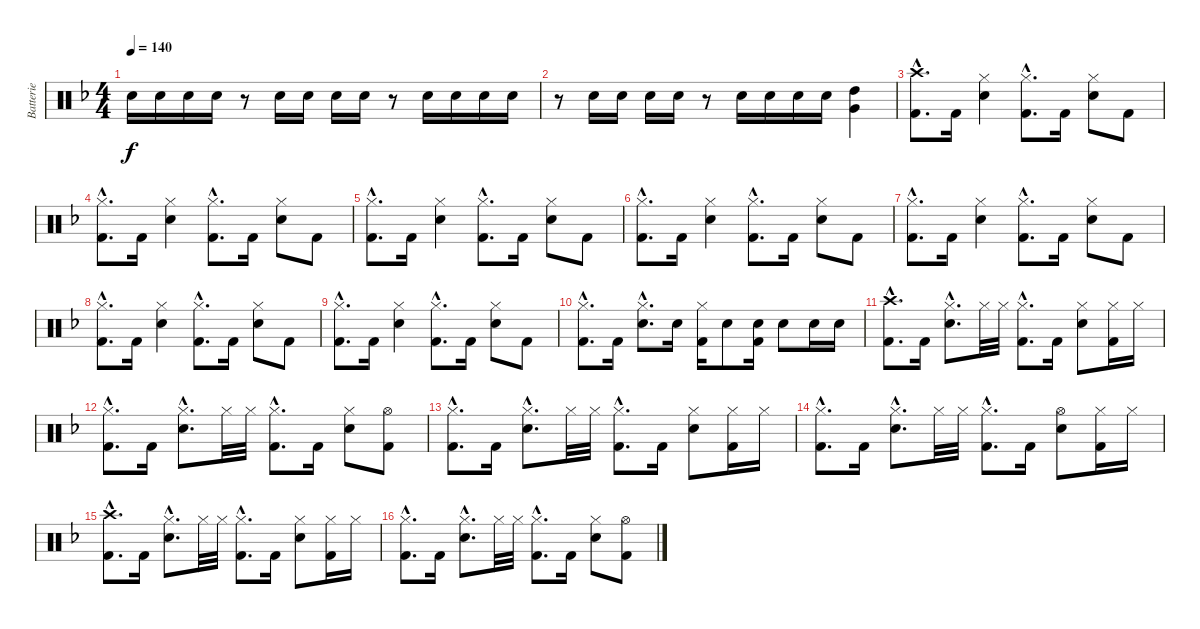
\track ("Batterie" "Batterie") {instrument percussion}
\staff {score}
\articulation defaults
\ts (4 4)
\tempo 140
\clef neutral
\ks f "Snare (hit) 2".16{dy f} "Snare (hit) 2".16 "Snare (hit) 2".16 "Snare (hit) 2".16
r.8 "Snare (hit) 2".16 "Snare (hit) 2".16 "Snare (hit) 2".16 "Snare (hit) 2".16 r.8 "Snare (hit) 2".16 "Snare (hit) 2".16 "Snare (hit) 2".16 "Snare (hit) 2".16 |
r.8 "Snare (hit) 2".16 "Snare (hit) 2".16 "Snare (hit) 2".16 "Snare (hit) 2".16 r.8 "Snare (hit) 2".16 "Snare (hit) 2".16 "Snare (hit) 2".16 "Snare (hit) 2".16 ("High Tom (hit)" "Very Low Tom (hit)").4 |
("Crash high (hit)"{hac} "Kick (hit) 2"{hac}).8{d} "Kick (hit) 2".16 ("Hi-Hat (closed)" "Snare (hit) 2").4 ("Hi-Hat (closed)"{hac} "Kick (hit) 2"{hac}).8{d} "Kick (hit) 2".16 ("Hi-Hat (closed)" "Snare (hit) 2").8 "Kick (hit) 2".8 |
("Hi-Hat (closed)"{hac} "Kick (hit) 2"{hac}).8{d} "Kick (hit) 2".16 ("Hi-Hat (closed)" "Snare (hit) 2").4 ("Hi-Hat (closed)"{hac} "Kick (hit) 2"{hac}).8{d} "Kick (hit) 2".16 ("Hi-Hat (closed)" "Snare (hit) 2").8 "Kick (hit) 2".8 |
("Hi-Hat (closed)"{hac} "Kick (hit) 2"{hac}).8{d} "Kick (hit) 2".16 ("Hi-Hat (closed)" "Snare (hit) 2").4 ("Hi-Hat (closed)"{hac} "Kick (hit) 2"{hac}).8{d} "Kick (hit) 2".16 ("Hi-Hat (closed)" "Snare (hit) 2").8 "Kick (hit) 2".8 |
("Hi-Hat (closed)"{hac} "Kick (hit) 2"{hac}).8{d} "Kick (hit) 2".16 ("Hi-Hat (closed)" "Snare (hit) 2").4 ("Hi-Hat (closed)"{hac} "Kick (hit) 2"{hac}).8{d} "Kick (hit) 2".16 ("Hi-Hat (closed)" "Snare (hit) 2").8 "Kick (hit) 2".8 |
("Hi-Hat (closed)"{hac} "Kick (hit) 2"{hac}).8{d} "Kick (hit) 2".16 ("Hi-Hat (closed)" "Snare (hit) 2").4 ("Hi-Hat (closed)"{hac} "Kick (hit) 2"{hac}).8{d} "Kick (hit) 2".16 ("Hi-Hat (closed)" "Snare (hit) 2").8 "Kick (hit) 2".8 |
("Hi-Hat (closed)"{hac} "Kick (hit) 2"{hac}).8{d} "Kick (hit) 2".16 ("Hi-Hat (closed)" "Snare (hit) 2").4 ("Hi-Hat (closed)"{hac} "Kick (hit) 2"{hac}).8{d} "Kick (hit) 2".16 ("Hi-Hat (closed)" "Snare (hit) 2").8 "Kick (hit) 2".8 |
("Hi-Hat (closed)"{hac} "Kick (hit) 2"{hac}).8{d} "Kick (hit) 2".16 ("Hi-Hat (closed)" "Snare (hit) 2").4 ("Hi-Hat (closed)"{hac} "Kick (hit) 2"{hac}).8{d} "Kick (hit) 2".16 ("Hi-Hat (closed)" "Snare (hit) 2").8 "Kick (hit) 2".8 |
("Hi-Hat (closed)"{hac} "Kick (hit) 2"{hac}).8{d} "Kick (hit) 2".16 ("Hi-Hat (closed)"{hac} "Snare (hit) 2"{hac}).8{d} "Snare (hit) 2".16 ("Hi-Hat (closed)" "Kick (hit) 2").16 "Snare (hit) 2".8 ("Snare (hit) 2" "Kick (hit) 2").16 "Snare (hit) 2".8 "Snare (hit) 2".16 "Snare (hit) 2".16 |
("Crash high (hit)"{hac} "Kick (hit) 2"{hac}).8{d} "Kick (hit) 2".16 ("Hi-Hat (closed)"{hac} "Snare (hit) 2"{hac}).8{d} "Hi-Hat (closed)".32 "Hi-Hat (closed)".32 ("Hi-Hat (closed)"{hac} "Kick (hit) 2"{hac}).8{d} "Kick (hit) 2".16 ("Hi-Hat (closed)" "Snare (hit) 2").8 ("Hi-Hat (closed)" "Kick (hit) 2").16 "Hi-Hat (closed)".16 |
("Hi-Hat (closed)"{hac} "Kick (hit) 2"{hac}).8{d} "Kick (hit) 2".16 ("Hi-Hat (closed)"{hac} "Snare (hit) 2"{hac}).8{d} "Hi-Hat (closed)".32 "Hi-Hat (closed)".32 ("Hi-Hat (closed)"{hac} "Kick (hit) 2"{hac}).8{d} "Kick (hit) 2".16 ("Hi-Hat (closed)" "Snare (hit) 2").8 ("Hi-Hat (open)" "Kick (hit) 2").8 |
("Hi-Hat (closed)"{hac} "Kick (hit) 2"{hac}).8{d} "Kick (hit) 2".16 ("Hi-Hat (closed)"{hac} "Snare (hit) 2"{hac}).8{d} "Hi-Hat (closed)".32 "Hi-Hat (closed)".32 ("Hi-Hat (closed)"{hac} "Kick (hit) 2"{hac}).8{d} "Kick (hit) 2".16 ("Hi-Hat (closed)" "Snare (hit) 2").8 ("Hi-Hat (closed)" "Kick (hit) 2").16 "Hi-Hat (closed)".16 |
("Hi-Hat (closed)"{hac} "Kick (hit) 2"{hac}).8{d} "Kick (hit) 2".16 ("Hi-Hat (closed)"{hac} "Snare (hit) 2"{hac}).8{d} "Hi-Hat (closed)".32 "Hi-Hat (closed)".32 ("Hi-Hat (closed)"{hac} "Kick (hit) 2"{hac}).8{d} "Kick (hit) 2".16 ("Hi-Hat (open)" "Snare (hit) 2").8 ("Hi-Hat (closed)" "Kick (hit) 2").16 "Hi-Hat (closed)".16 |
("Crash high (hit)"{hac} "Kick (hit) 2"{hac}).8{d} "Kick (hit) 2".16 ("Hi-Hat (closed)"{hac} "Snare (hit) 2"{hac}).8{d} "Hi-Hat (closed)".32 "Hi-Hat (closed)".32 ("Hi-Hat (closed)"{hac} "Kick (hit) 2"{hac}).8{d} "Kick (hit) 2".16 ("Hi-Hat (closed)" "Snare (hit) 2").8 ("Hi-Hat (closed)" "Kick (hit) 2").16 "Hi-Hat (closed)".16 |
("Hi-Hat (closed)"{hac} "Kick (hit) 2"{hac}).8{d} "Kick (hit) 2".16 ("Hi-Hat (closed)"{hac} "Snare (hit) 2"{hac}).8{d} "Hi-Hat (closed)".32 "Hi-Hat (closed)".32 ("Hi-Hat (closed)"{hac} "Kick (hit) 2"{hac}).8{d} "Kick (hit) 2".16 ("Hi-Hat (closed)" "Snare (hit) 2").8 ("Hi-Hat (open)" "Kick (hit) 2").8
